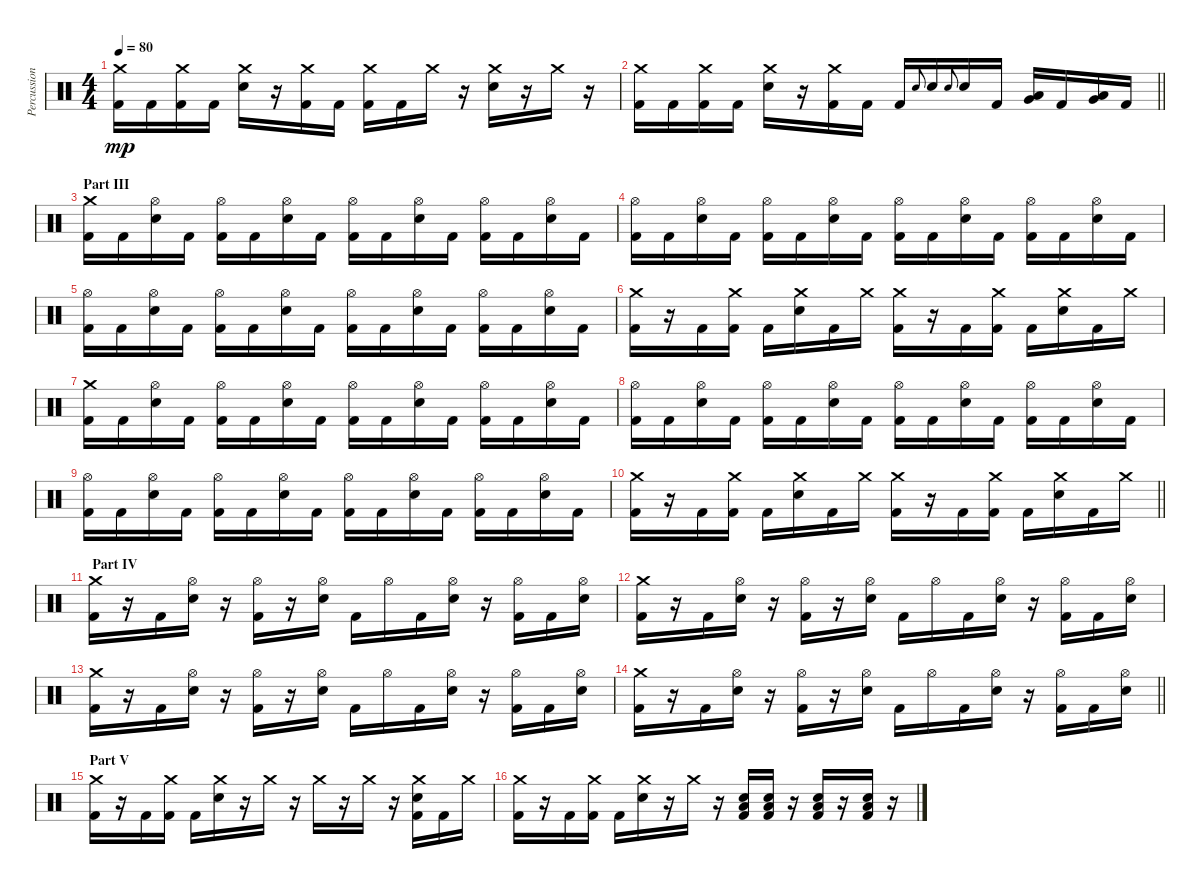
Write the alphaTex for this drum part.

\track ("Percussion" "Percussion") {instrument percussion}
\staff {score}
\articulation defaults
\ts (4 4)
\tempo 80
\clef neutral
\ks c
("Crash medium (hit)" "Kick (hit) 2").16{dy mp} "Kick (hit) 2".16 ("Crash medium (hit)" "Kick (hit) 2").16 "Kick (hit) 2".16 ("Crash medium (hit)" "Electric Snare (hit)").16 r.16 ("Crash medium (hit)" "Kick (hit) 2").16 "Kick (hit) 2".16 ("Crash medium (hit)" "Kick (hit) 2").16 "Kick (hit) 2".16 "Crash medium (hit)".16 r.16 ("Crash medium (hit)" "Electric Snare (hit)").16 r.16 "Crash medium (hit)".16 r.16 |
\barLineRight lightlight
("Crash medium (hit)" "Kick (hit) 2").16 "Kick (hit) 2".16 ("Crash medium (hit)" "Kick (hit) 2").16 "Kick (hit) 2".16 ("Crash medium (hit)" "Electric Snare (hit)").16 r.16 ("Crash medium (hit)" "Kick (hit) 2").16 "Kick (hit) 2".16 "Kick (hit) 2".16 "Electric Snare (hit)".8{gr onbeat} "Electric Snare (hit)".16 "Electric Snare (hit)".8{gr onbeat} "Electric Snare (hit)".16 "Kick (hit) 2".16 ("Low Tom (hit)" "Very Low Tom (hit)").16 "Kick (hit) 2".16 ("Very Low Tom (hit)" "Low Floor Tom (hit)").16 "Kick (hit) 2".16 |
\section ("" "Part III")
("Crash medium (hit)" "Kick (hit) 2").16 "Kick (hit) 2".16 ("Hi-Hat (open)" "Electric Snare (hit)").16 "Kick (hit) 2".16 ("Hi-Hat (open)" "Kick (hit) 2").16 "Kick (hit) 2".16 ("Hi-Hat (open)" "Electric Snare (hit)").16 "Kick (hit) 2".16 ("Hi-Hat (open)" "Kick (hit) 2").16 "Kick (hit) 2".16 ("Hi-Hat (open)" "Electric Snare (hit)").16 "Kick (hit) 2".16 ("Hi-Hat (open)" "Kick (hit) 2").16 "Kick (hit) 2".16 ("Hi-Hat (open)" "Electric Snare (hit)").16 "Kick (hit) 2".16 |
("Hi-Hat (open)" "Kick (hit) 2").16 "Kick (hit) 2".16 ("Hi-Hat (open)" "Electric Snare (hit)").16 "Kick (hit) 2".16 ("Hi-Hat (open)" "Kick (hit) 2").16 "Kick (hit) 2".16 ("Hi-Hat (open)" "Electric Snare (hit)").16 "Kick (hit) 2".16 ("Hi-Hat (open)" "Kick (hit) 2").16 "Kick (hit) 2".16 ("Hi-Hat (open)" "Electric Snare (hit)").16 "Kick (hit) 2".16 ("Hi-Hat (open)" "Kick (hit) 2").16 "Kick (hit) 2".16 ("Hi-Hat (open)" "Electric Snare (hit)").16 "Kick (hit) 2".16 |
("Hi-Hat (open)" "Kick (hit) 2").16 "Kick (hit) 2".16 ("Hi-Hat (open)" "Electric Snare (hit)").16 "Kick (hit) 2".16 ("Hi-Hat (open)" "Kick (hit) 2").16 "Kick (hit) 2".16 ("Hi-Hat (open)" "Electric Snare (hit)").16 "Kick (hit) 2".16 ("Hi-Hat (open)" "Kick (hit) 2").16 "Kick (hit) 2".16 ("Hi-Hat (open)" "Electric Snare (hit)").16 "Kick (hit) 2".16 ("Hi-Hat (open)" "Kick (hit) 2").16 "Kick (hit) 2".16 ("Hi-Hat (open)" "Electric Snare (hit)").16 "Kick (hit) 2".16 |
("Crash medium (hit)" "Kick (hit) 2").16 r.16 "Kick (hit) 2".16 ("Crash medium (hit)" "Kick (hit) 2").16 "Kick (hit) 2".16 ("Crash medium (hit)" "Electric Snare (hit)").16 "Kick (hit) 2".16 "Crash medium (hit)".16 ("Crash medium (hit)" "Kick (hit) 2").16 r.16 "Kick (hit) 2".16 ("Crash medium (hit)" "Kick (hit) 2").16 "Kick (hit) 2".16 ("Crash medium (hit)" "Electric Snare (hit)").16 "Kick (hit) 2".16 "Crash medium (hit)".16 |
("Crash medium (hit)" "Kick (hit) 2").16 "Kick (hit) 2".16 ("Hi-Hat (open)" "Electric Snare (hit)").16 "Kick (hit) 2".16 ("Hi-Hat (open)" "Kick (hit) 2").16 "Kick (hit) 2".16 ("Hi-Hat (open)" "Electric Snare (hit)").16 "Kick (hit) 2".16 ("Hi-Hat (open)" "Kick (hit) 2").16 "Kick (hit) 2".16 ("Hi-Hat (open)" "Electric Snare (hit)").16 "Kick (hit) 2".16 ("Hi-Hat (open)" "Kick (hit) 2").16 "Kick (hit) 2".16 ("Hi-Hat (open)" "Electric Snare (hit)").16 "Kick (hit) 2".16 |
("Hi-Hat (open)" "Kick (hit) 2").16 "Kick (hit) 2".16 ("Hi-Hat (open)" "Electric Snare (hit)").16 "Kick (hit) 2".16 ("Hi-Hat (open)" "Kick (hit) 2").16 "Kick (hit) 2".16 ("Hi-Hat (open)" "Electric Snare (hit)").16 "Kick (hit) 2".16 ("Hi-Hat (open)" "Kick (hit) 2").16 "Kick (hit) 2".16 ("Hi-Hat (open)" "Electric Snare (hit)").16 "Kick (hit) 2".16 ("Hi-Hat (open)" "Kick (hit) 2").16 "Kick (hit) 2".16 ("Hi-Hat (open)" "Electric Snare (hit)").16 "Kick (hit) 2".16 |
("Hi-Hat (open)" "Kick (hit) 2").16 "Kick (hit) 2".16 ("Hi-Hat (open)" "Electric Snare (hit)").16 "Kick (hit) 2".16 ("Hi-Hat (open)" "Kick (hit) 2").16 "Kick (hit) 2".16 ("Hi-Hat (open)" "Electric Snare (hit)").16 "Kick (hit) 2".16 ("Hi-Hat (open)" "Kick (hit) 2").16 "Kick (hit) 2".16 ("Hi-Hat (open)" "Electric Snare (hit)").16 "Kick (hit) 2".16 ("Hi-Hat (open)" "Kick (hit) 2").16 "Kick (hit) 2".16 ("Hi-Hat (open)" "Electric Snare (hit)").16 "Kick (hit) 2".16 |
\barLineRight lightlight
("Crash medium (hit)" "Kick (hit) 2").16 r.16 "Kick (hit) 2".16 ("Crash medium (hit)" "Kick (hit) 2").16 "Kick (hit) 2".16 ("Crash medium (hit)" "Electric Snare (hit)").16 "Kick (hit) 2".16 "Crash medium (hit)".16 ("Crash medium (hit)" "Kick (hit) 2").16 r.16 "Kick (hit) 2".16 ("Crash medium (hit)" "Kick (hit) 2").16 "Kick (hit) 2".16 ("Crash medium (hit)" "Electric Snare (hit)").16 "Kick (hit) 2".16 "Crash medium (hit)".16 |
\section ("" " Part IV")
("Crash medium (hit)" "Kick (hit) 2").16 r.16 "Kick (hit) 2".16 ("Hi-Hat (open)" "Electric Snare (hit)").16 r.16 ("Hi-Hat (open)" "Kick (hit) 2").16 r.16 ("Hi-Hat (open)" "Electric Snare (hit)").16 "Kick (hit) 2".16 "Hi-Hat (open)".16 "Kick (hit) 2".16 ("Hi-Hat (open)" "Electric Snare (hit)").16 r.16 ("Hi-Hat (open)" "Kick (hit) 2").16 "Kick (hit) 2".16 ("Hi-Hat (open)" "Electric Snare (hit)").16 |
("Crash medium (hit)" "Kick (hit) 2").16 r.16 "Kick (hit) 2".16 ("Hi-Hat (open)" "Electric Snare (hit)").16 r.16 ("Hi-Hat (open)" "Kick (hit) 2").16 r.16 ("Hi-Hat (open)" "Electric Snare (hit)").16 "Kick (hit) 2".16 "Hi-Hat (open)".16 "Kick (hit) 2".16 ("Hi-Hat (open)" "Electric Snare (hit)").16 r.16 ("Hi-Hat (open)" "Kick (hit) 2").16 "Kick (hit) 2".16 ("Hi-Hat (open)" "Electric Snare (hit)").16 |
("Crash medium (hit)" "Kick (hit) 2").16 r.16 "Kick (hit) 2".16 ("Hi-Hat (open)" "Electric Snare (hit)").16 r.16 ("Hi-Hat (open)" "Kick (hit) 2").16 r.16 ("Hi-Hat (open)" "Electric Snare (hit)").16 "Kick (hit) 2".16 "Hi-Hat (open)".16 "Kick (hit) 2".16 ("Hi-Hat (open)" "Electric Snare (hit)").16 r.16 ("Hi-Hat (open)" "Kick (hit) 2").16 "Kick (hit) 2".16 ("Hi-Hat (open)" "Electric Snare (hit)").16 |
\barLineRight lightlight
("Crash medium (hit)" "Kick (hit) 2").16 r.16 "Kick (hit) 2".16 ("Hi-Hat (open)" "Electric Snare (hit)").16 r.16 ("Hi-Hat (open)" "Kick (hit) 2").16 r.16 ("Hi-Hat (open)" "Electric Snare (hit)").16 "Kick (hit) 2".16 "Hi-Hat (open)".16 "Kick (hit) 2".16 ("Hi-Hat (open)" "Electric Snare (hit)").16 r.16 ("Hi-Hat (open)" "Kick (hit) 2").16 "Kick (hit) 2".16 ("Hi-Hat (open)" "Electric Snare (hit)").16 |
\section ("" "Part V")
("Crash medium (hit)" "Kick (hit) 2").16 r.16 "Kick (hit) 2".16 ("Crash medium (hit)" "Kick (hit) 2").16 "Kick (hit) 2".16 ("Crash medium (hit)" "Electric Snare (hit)").16 r.16 "Crash medium (hit)".16 r.16 "Crash medium (hit)".16 r.16 "Crash medium (hit)".16 r.16 ("Crash medium (hit)" "Electric Snare (hit)" "Kick (hit) 2").16 "Kick (hit) 2".16 "Crash medium (hit)".16 |
("Crash medium (hit)" "Kick (hit) 2").16 r.16 "Kick (hit) 2".16 ("Crash medium (hit)" "Kick (hit) 2").16 "Kick (hit) 2".16 ("Crash medium (hit)" "Electric Snare (hit)").16 r.16 "Crash medium (hit)".16 r.16 ("Electric Snare (hit)" "Low Floor Tom (hit)" "Kick (hit) 2").16 ("Electric Snare (hit)" "Low Floor Tom (hit)" "Kick (hit) 2").16 r.16 ("Electric Snare (hit)" "Low Floor Tom (hit)" "Kick (hit) 2").16 r.16 ("Electric Snare (hit)" "Low Floor Tom (hit)" "Kick (hit) 2").16 r.16
